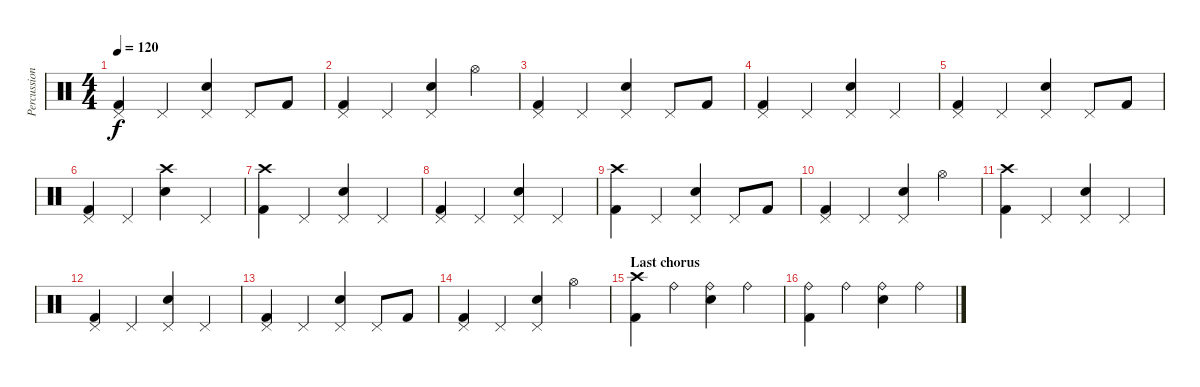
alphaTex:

\track ("Percussion" "Percussion") {instrument percussion}
\staff {score}
\articulation defaults
\ts (4 4)
\tempo 120
\clef neutral
\ks c
("Pedal Hi-Hat (hit)" "Kick (hit) 2").4{dy f} "Pedal Hi-Hat (hit)".4 ("Pedal Hi-Hat (hit)" "Snare (hit) 2").4 "Pedal Hi-Hat (hit)".8 "Kick (hit) 2".8 |
("Pedal Hi-Hat (hit)" "Kick (hit) 2").4 "Pedal Hi-Hat (hit)".4 ("Pedal Hi-Hat (hit)" "Snare (hit) 2").4 "Hi-Hat (open)".4 |
("Pedal Hi-Hat (hit)" "Kick (hit) 2").4 "Pedal Hi-Hat (hit)".4 ("Pedal Hi-Hat (hit)" "Snare (hit) 2").4 "Pedal Hi-Hat (hit)".8 "Kick (hit) 2".8 |
("Pedal Hi-Hat (hit)" "Kick (hit) 2").4 "Pedal Hi-Hat (hit)".4 ("Pedal Hi-Hat (hit)" "Snare (hit) 2").4 "Pedal Hi-Hat (hit)".4 |
("Pedal Hi-Hat (hit)" "Kick (hit) 2").4 "Pedal Hi-Hat (hit)".4 ("Pedal Hi-Hat (hit)" "Snare (hit) 2").4 "Pedal Hi-Hat (hit)".8 "Kick (hit) 2".8 |
("Pedal Hi-Hat (hit)" "Kick (hit) 2").4 "Pedal Hi-Hat (hit)".4 ("Crash high (hit)" "Snare (hit) 2").4 "Pedal Hi-Hat (hit)".4 |
("Crash high (hit)" "Kick (hit) 2").4 "Pedal Hi-Hat (hit)".4 ("Pedal Hi-Hat (hit)" "Snare (hit) 2").4 "Pedal Hi-Hat (hit)".4 |
("Pedal Hi-Hat (hit)" "Kick (hit) 2").4 "Pedal Hi-Hat (hit)".4 ("Pedal Hi-Hat (hit)" "Snare (hit) 2").4 "Pedal Hi-Hat (hit)".4 |
("Crash high (hit)" "Kick (hit) 2").4 "Pedal Hi-Hat (hit)".4 ("Pedal Hi-Hat (hit)" "Snare (hit) 2").4 "Pedal Hi-Hat (hit)".8 "Kick (hit) 2".8 |
("Pedal Hi-Hat (hit)" "Kick (hit) 2").4 "Pedal Hi-Hat (hit)".4 ("Pedal Hi-Hat (hit)" "Snare (hit) 2").4 "Hi-Hat (open)".4 |
("Crash high (hit)" "Kick (hit) 2").4 "Pedal Hi-Hat (hit)".4 ("Pedal Hi-Hat (hit)" "Snare (hit) 2").4 "Pedal Hi-Hat (hit)".4 |
("Pedal Hi-Hat (hit)" "Kick (hit) 2").4 "Pedal Hi-Hat (hit)".4 ("Pedal Hi-Hat (hit)" "Snare (hit) 2").4 "Pedal Hi-Hat (hit)".4 |
("Pedal Hi-Hat (hit)" "Kick (hit) 2").4 "Pedal Hi-Hat (hit)".4 ("Pedal Hi-Hat (hit)" "Snare (hit) 2").4 "Pedal Hi-Hat (hit)".8 "Kick (hit) 2".8 |
("Pedal Hi-Hat (hit)" "Kick (hit) 2").4 "Pedal Hi-Hat (hit)".4 ("Pedal Hi-Hat (hit)" "Snare (hit) 2").4 "Hi-Hat (open)".4 |
\section ("" "Last chorus")
("Crash high (hit)" "Kick (hit) 2").4 "Ride (bell)".4 ("Ride (bell)" "Snare (hit) 2").4 "Ride (bell)".4 |
("Ride (bell)" "Kick (hit) 2").4 "Ride (bell)".4 ("Ride (bell)" "Snare (hit) 2").4 "Ride (bell)".4
